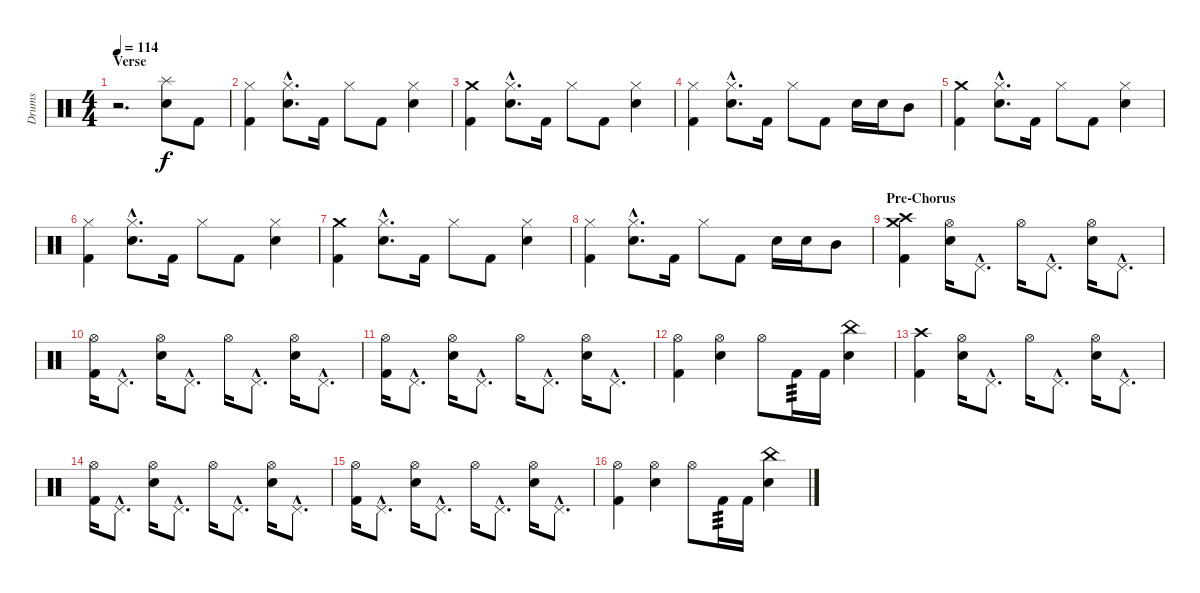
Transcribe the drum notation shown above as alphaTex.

\track ("Drums" "Drums") {instrument percussion}
\staff {score}
\articulation defaults
\ts (4 4)
\section ("" "Verse")
\tempo 114
\clef neutral
\ks c
r.2{d dy f} ("Splash (hit)" "Snare (hit) 2").8 "Kick (hit) 2".8 |
("Hi-Hat (closed)" "Kick (hit) 2").4 ("Hi-Hat (closed)"{hac} "Snare (hit) 2"{hac}).8{d} "Kick (hit) 2".16 "Hi-Hat (closed)".8 "Kick (hit) 2".8 ("Hi-Hat (closed)" "Snare (hit) 2").4 |
("Crash medium (hit)" "Kick (hit) 2").4 ("Hi-Hat (closed)"{hac} "Snare (hit) 2"{hac}).8{d} "Kick (hit) 2".16 "Hi-Hat (closed)".8 "Kick (hit) 2".8 ("Hi-Hat (closed)" "Snare (hit) 2").4 |
("Hi-Hat (closed)" "Kick (hit) 2").4 ("Hi-Hat (closed)"{hac} "Snare (hit) 2"{hac}).8{d} "Kick (hit) 2".16 "Hi-Hat (closed)".8 "Kick (hit) 2".8 "Snare (hit) 2".16 "Snare (hit) 2".16 "Mid Tom (hit)".8 |
("Crash medium (hit)" "Kick (hit) 2").4 ("Hi-Hat (closed)"{hac} "Snare (hit) 2"{hac}).8{d} "Kick (hit) 2".16 "Hi-Hat (closed)".8 "Kick (hit) 2".8 ("Hi-Hat (closed)" "Snare (hit) 2").4 |
("Hi-Hat (closed)" "Kick (hit) 2").4 ("Hi-Hat (closed)"{hac} "Snare (hit) 2"{hac}).8{d} "Kick (hit) 2".16 "Hi-Hat (closed)".8 "Kick (hit) 2".8 ("Hi-Hat (closed)" "Snare (hit) 2").4 |
("Crash medium (hit)" "Kick (hit) 2").4 ("Hi-Hat (closed)"{hac} "Snare (hit) 2"{hac}).8{d} "Kick (hit) 2".16 "Hi-Hat (closed)".8 "Kick (hit) 2".8 ("Hi-Hat (closed)" "Snare (hit) 2").4 |
("Hi-Hat (closed)" "Kick (hit) 2").4 ("Hi-Hat (closed)"{hac} "Snare (hit) 2"{hac}).8{d} "Kick (hit) 2".16 "Hi-Hat (closed)".8 "Kick (hit) 2".8 "Snare (hit) 2".16 "Snare (hit) 2".16 "Mid Tom (hit)".8 |
\section ("" "Pre-Chorus")
("Crash high (hit)" "Crash medium (hit)" "Kick (hit) 2").4 ("Hi-Hat (open)" "Snare (hit) 2").16 "Pedal Hi-Hat (hit)"{hac}.8{d} "Hi-Hat (open)".16 "Pedal Hi-Hat (hit)"{hac}.8{d} ("Hi-Hat (open)" "Snare (hit) 2").16 "Pedal Hi-Hat (hit)"{hac}.8{d} |
("Hi-Hat (open)" "Kick (hit) 2").16 "Pedal Hi-Hat (hit)"{hac}.8{d} ("Hi-Hat (open)" "Snare (hit) 2").16 "Pedal Hi-Hat (hit)"{hac}.8{d} "Hi-Hat (open)".16 "Pedal Hi-Hat (hit)"{hac}.8{d} ("Hi-Hat (open)" "Snare (hit) 2").16 "Pedal Hi-Hat (hit)"{hac}.8{d} |
("Hi-Hat (open)" "Kick (hit) 2").16 "Pedal Hi-Hat (hit)"{hac}.8{d} ("Hi-Hat (open)" "Snare (hit) 2").16 "Pedal Hi-Hat (hit)"{hac}.8{d} "Hi-Hat (open)".16 "Pedal Hi-Hat (hit)"{hac}.8{d} ("Hi-Hat (open)" "Snare (hit) 2").16 "Pedal Hi-Hat (hit)"{hac}.8{d} |
("Hi-Hat (open)" "Kick (hit) 2").4 ("Hi-Hat (open)" "Snare (hit) 2").4 "Hi-Hat (open)".8 "Kick (hit) 2".16{tp 3} "Kick (hit) 2".16 ("China (hit)" "Snare (hit) 2").4 |
("Crash high (hit)" "Kick (hit) 2").4 ("Hi-Hat (open)" "Snare (hit) 2").16 "Pedal Hi-Hat (hit)"{hac}.8{d} "Hi-Hat (open)".16 "Pedal Hi-Hat (hit)"{hac}.8{d} ("Hi-Hat (open)" "Snare (hit) 2").16 "Pedal Hi-Hat (hit)"{hac}.8{d} |
("Hi-Hat (open)" "Kick (hit) 2").16 "Pedal Hi-Hat (hit)"{hac}.8{d} ("Hi-Hat (open)" "Snare (hit) 2").16 "Pedal Hi-Hat (hit)"{hac}.8{d} "Hi-Hat (open)".16 "Pedal Hi-Hat (hit)"{hac}.8{d} ("Hi-Hat (open)" "Snare (hit) 2").16 "Pedal Hi-Hat (hit)"{hac}.8{d} |
("Hi-Hat (open)" "Kick (hit) 2").16 "Pedal Hi-Hat (hit)"{hac}.8{d} ("Hi-Hat (open)" "Snare (hit) 2").16 "Pedal Hi-Hat (hit)"{hac}.8{d} "Hi-Hat (open)".16 "Pedal Hi-Hat (hit)"{hac}.8{d} ("Hi-Hat (open)" "Snare (hit) 2").16 "Pedal Hi-Hat (hit)"{hac}.8{d} |
("Hi-Hat (open)" "Kick (hit) 2").4 ("Hi-Hat (open)" "Snare (hit) 2").4 "Hi-Hat (open)".8 "Kick (hit) 2".16{tp 3} "Kick (hit) 2".16 ("China (hit)" "Snare (hit) 2").4
